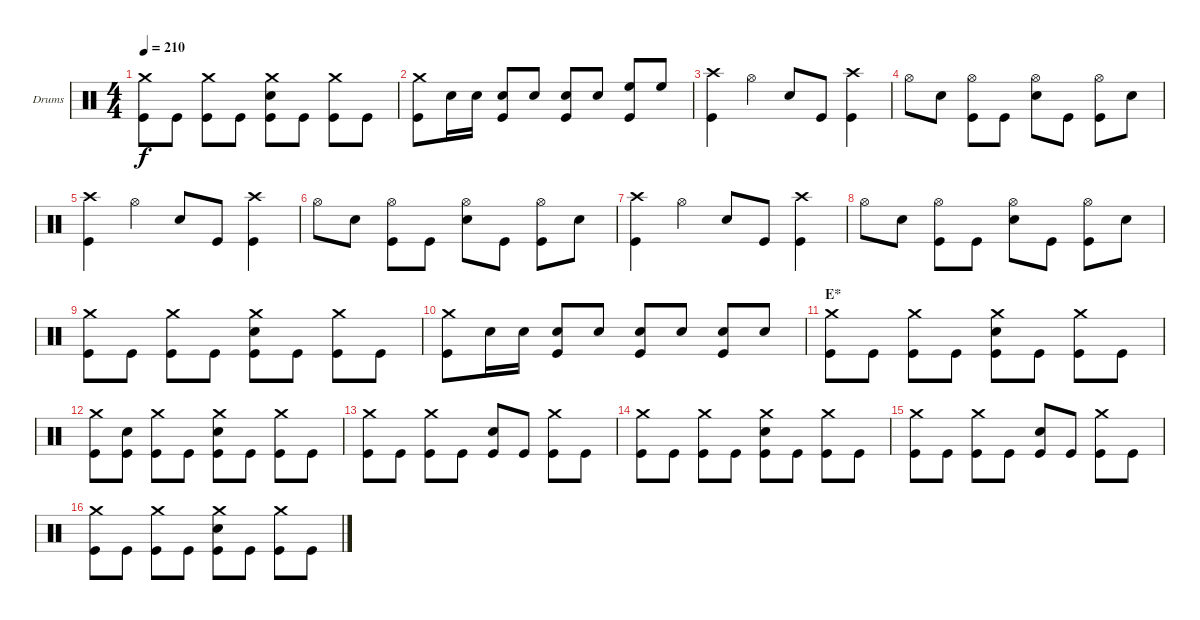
\bracketExtendMode groupsimilarinstruments
\firstSystemTrackNameOrientation horizontal
\otherSystemsTrackNameOrientation horizontal
\track ("Drumkit" "Drums") {instrument percussion}
\staff {score}
\articulation defaults
\ts (4 4)
\tempo 210
\clef neutral
\ks c
("Crash medium (hit)" "Kick (hit)").8{dy f} "Kick (hit)".8 ("Crash medium (hit)" "Kick (hit)").8 "Kick (hit)".8 ("Crash medium (hit)" "Snare (hit) 2" "Kick (hit)").8 "Kick (hit)".8 ("Crash medium (hit)" "Kick (hit)").8 "Kick (hit)".8 |
("Crash medium (hit)" "Kick (hit)").8 "Snare (hit) 2".16 "Snare (hit) 2".16 ("Snare (hit) 2" "Kick (hit)").8 "Snare (hit) 2".8 ("Snare (hit) 2" "Kick (hit)").8 "Snare (hit) 2".8 ("High Floor Tom (hit)" "Kick (hit)").8 "High Floor Tom (hit)".8 |
("Crash high (hit)" "Kick (hit)").4 "Hi-Hat (open)".4 "Snare (hit) 2".8 "Kick (hit)".8 ("Crash high (hit)" "Kick (hit)").4 |
"Hi-Hat (open)".8 "Snare (hit) 2".8 ("Hi-Hat (open)" "Kick (hit)").8 "Kick (hit)".8 ("Hi-Hat (open)" "Snare (hit) 2").8 "Kick (hit)".8 ("Hi-Hat (open)" "Kick (hit)").8 "Snare (hit) 2".8 |
("Crash high (hit)" "Kick (hit)").4 "Hi-Hat (open)".4 "Snare (hit) 2".8 "Kick (hit)".8 ("Crash high (hit)" "Kick (hit)").4 |
"Hi-Hat (open)".8 "Snare (hit) 2".8 ("Hi-Hat (open)" "Kick (hit)").8 "Kick (hit)".8 ("Hi-Hat (open)" "Snare (hit) 2").8 "Kick (hit)".8 ("Hi-Hat (open)" "Kick (hit)").8 "Snare (hit) 2".8 |
("Crash high (hit)" "Kick (hit)").4 "Hi-Hat (open)".4 "Snare (hit) 2".8 "Kick (hit)".8 ("Crash high (hit)" "Kick (hit)").4 |
"Hi-Hat (open)".8 "Snare (hit) 2".8 ("Hi-Hat (open)" "Kick (hit)").8 "Kick (hit)".8 ("Hi-Hat (open)" "Snare (hit) 2").8 "Kick (hit)".8 ("Hi-Hat (open)" "Kick (hit)").8 "Snare (hit) 2".8 |
("Crash medium (hit)" "Kick (hit)").8 "Kick (hit)".8 ("Crash medium (hit)" "Kick (hit)").8 "Kick (hit)".8 ("Crash medium (hit)" "Snare (hit) 2" "Kick (hit)").8 "Kick (hit)".8 ("Crash medium (hit)" "Kick (hit)").8 "Kick (hit)".8 |
("Crash medium (hit)" "Kick (hit)").8 "Snare (hit) 2".16 "Snare (hit) 2".16 ("Snare (hit) 2" "Kick (hit)").8 "Snare (hit) 2".8 ("Snare (hit) 2" "Kick (hit)").8 "Snare (hit) 2".8 ("Snare (hit) 2" "Kick (hit)").8 "Snare (hit) 2".8 |
\section ("" "E*")
("Crash medium (hit)" "Kick (hit)").8 "Kick (hit)".8 ("Crash medium (hit)" "Kick (hit)").8 "Kick (hit)".8 ("Crash medium (hit)" "Snare (hit) 2" "Kick (hit)").8 "Kick (hit)".8 ("Crash medium (hit)" "Kick (hit)").8 "Kick (hit)".8 |
("Crash medium (hit)" "Kick (hit)").8 ("Snare (hit) 2" "Kick (hit)").8 ("Crash medium (hit)" "Kick (hit)").8 "Kick (hit)".8 ("Crash medium (hit)" "Snare (hit) 2" "Kick (hit)").8 "Kick (hit)".8 ("Crash medium (hit)" "Kick (hit)").8 "Kick (hit)".8 |
("Crash medium (hit)" "Kick (hit)").8 "Kick (hit)".8 ("Crash medium (hit)" "Kick (hit)").8 "Kick (hit)".8 ("Snare (hit) 2" "Kick (hit)").8 "Kick (hit)".8 ("Crash medium (hit)" "Kick (hit)").8 "Kick (hit)".8 |
("Crash medium (hit)" "Kick (hit)").8 "Kick (hit)".8 ("Crash medium (hit)" "Kick (hit)").8 "Kick (hit)".8 ("Crash medium (hit)" "Snare (hit) 2" "Kick (hit)").8 "Kick (hit)".8 ("Crash medium (hit)" "Kick (hit)").8 "Kick (hit)".8 |
("Crash medium (hit)" "Kick (hit)").8 "Kick (hit)".8 ("Crash medium (hit)" "Kick (hit)").8 "Kick (hit)".8 ("Snare (hit) 2" "Kick (hit)").8 "Kick (hit)".8 ("Crash medium (hit)" "Kick (hit)").8 "Kick (hit)".8 |
("Crash medium (hit)" "Kick (hit)").8 "Kick (hit)".8 ("Crash medium (hit)" "Kick (hit)").8 "Kick (hit)".8 ("Crash medium (hit)" "Snare (hit) 2" "Kick (hit)").8 "Kick (hit)".8 ("Crash medium (hit)" "Kick (hit)").8 "Kick (hit)".8
